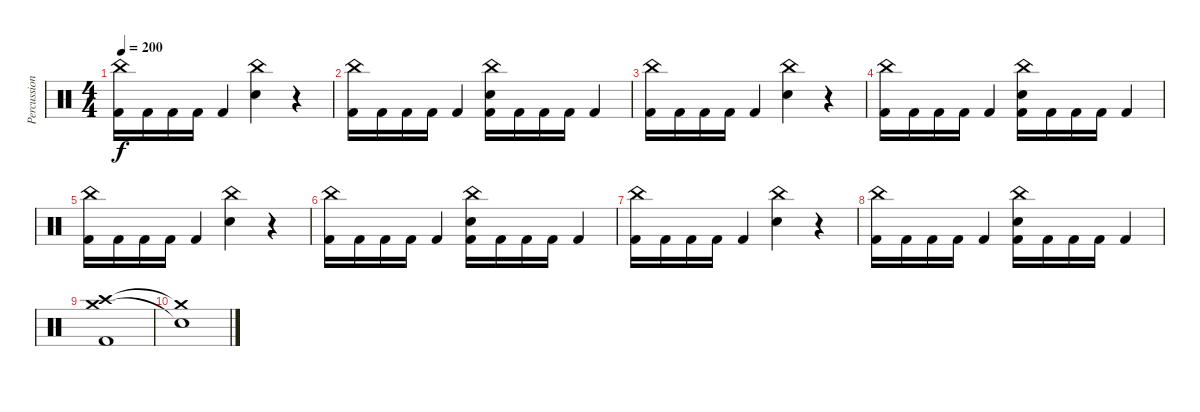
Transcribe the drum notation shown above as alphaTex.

\track ("Percussion" "Percussion") {instrument percussion}
\staff {score}
\articulation defaults
\ts (4 4)
\tempo 200
\clef neutral
\ks c
("China (hit)" "Kick (hit) 2").16{dy f} "Kick (hit) 2".16 "Kick (hit) 2".16 "Kick (hit) 2".16 "Kick (hit) 2".4 ("China (hit)" "Electric Snare (hit)").4 r.4 |
("China (hit)" "Kick (hit) 2").16 "Kick (hit) 2".16 "Kick (hit) 2".16 "Kick (hit) 2".16 "Kick (hit) 2".4 ("China (hit)" "Electric Snare (hit)" "Kick (hit) 2").16 "Kick (hit) 2".16 "Kick (hit) 2".16 "Kick (hit) 2".16 "Kick (hit) 2".4 |
("China (hit)" "Kick (hit) 2").16 "Kick (hit) 2".16 "Kick (hit) 2".16 "Kick (hit) 2".16 "Kick (hit) 2".4 ("China (hit)" "Electric Snare (hit)").4 r.4 |
("China (hit)" "Kick (hit) 2").16 "Kick (hit) 2".16 "Kick (hit) 2".16 "Kick (hit) 2".16 "Kick (hit) 2".4 ("China (hit)" "Electric Snare (hit)" "Kick (hit) 2").16 "Kick (hit) 2".16 "Kick (hit) 2".16 "Kick (hit) 2".16 "Kick (hit) 2".4 |
("China (hit)" "Kick (hit) 2").16 "Kick (hit) 2".16 "Kick (hit) 2".16 "Kick (hit) 2".16 "Kick (hit) 2".4 ("China (hit)" "Electric Snare (hit)").4 r.4 |
("China (hit)" "Kick (hit) 2").16 "Kick (hit) 2".16 "Kick (hit) 2".16 "Kick (hit) 2".16 "Kick (hit) 2".4 ("China (hit)" "Electric Snare (hit)" "Kick (hit) 2").16 "Kick (hit) 2".16 "Kick (hit) 2".16 "Kick (hit) 2".16 "Kick (hit) 2".4 |
("China (hit)" "Kick (hit) 2").16 "Kick (hit) 2".16 "Kick (hit) 2".16 "Kick (hit) 2".16 "Kick (hit) 2".4 ("China (hit)" "Electric Snare (hit)").4 r.4 |
("China (hit)" "Kick (hit) 2").16 "Kick (hit) 2".16 "Kick (hit) 2".16 "Kick (hit) 2".16 "Kick (hit) 2".4 ("China (hit)" "Electric Snare (hit)" "Kick (hit) 2").16 "Kick (hit) 2".16 "Kick (hit) 2".16 "Kick (hit) 2".16 "Kick (hit) 2".4 |
("Crash high (hit)" "Crash medium (hit)" "Kick (hit) 2").1 |
("Crash medium (hit)"{t} "Snare (hit)"{t}).1
